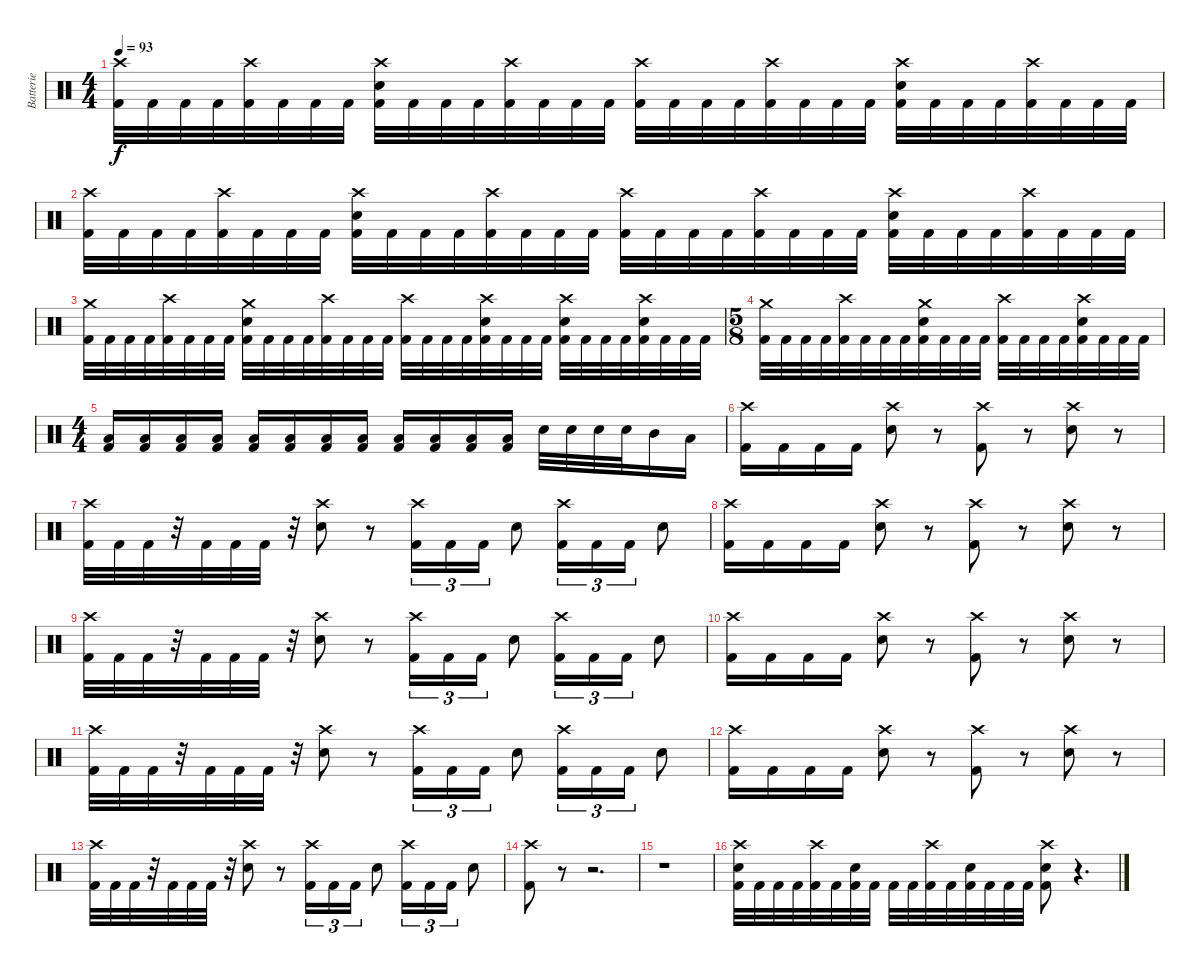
\track ("Batterie" "Batterie") {instrument percussion}
\staff {score}
\articulation defaults
\ts (4 4)
\tempo 93
\clef neutral
\ks c
("Crash high (hit)" "Kick (hit) 2").32{dy f} "Kick (hit) 2".32 "Kick (hit) 2".32 "Kick (hit) 2".32 ("Crash high (hit)" "Kick (hit) 2").32 "Kick (hit) 2".32 "Kick (hit) 2".32 "Kick (hit) 2".32 ("Crash high (hit)" "Electric Snare (hit)" "Kick (hit) 2").32 "Kick (hit) 2".32 "Kick (hit) 2".32 "Kick (hit) 2".32 ("Crash high (hit)" "Kick (hit) 2").32 "Kick (hit) 2".32 "Kick (hit) 2".32 "Kick (hit) 2".32 ("Crash high (hit)" "Kick (hit) 2").32 "Kick (hit) 2".32 "Kick (hit) 2".32 "Kick (hit) 2".32 ("Crash high (hit)" "Kick (hit) 2").32 "Kick (hit) 2".32 "Kick (hit) 2".32 "Kick (hit) 2".32 ("Crash high (hit)" "Electric Snare (hit)" "Kick (hit) 2").32 "Kick (hit) 2".32 "Kick (hit) 2".32 "Kick (hit) 2".32 ("Crash high (hit)" "Kick (hit) 2").32 "Kick (hit) 2".32 "Kick (hit) 2".32 "Kick (hit) 2".32 |
("Crash high (hit)" "Kick (hit) 2").32 "Kick (hit) 2".32 "Kick (hit) 2".32 "Kick (hit) 2".32 ("Crash high (hit)" "Kick (hit) 2").32 "Kick (hit) 2".32 "Kick (hit) 2".32 "Kick (hit) 2".32 ("Crash high (hit)" "Electric Snare (hit)" "Kick (hit) 2").32 "Kick (hit) 2".32 "Kick (hit) 2".32 "Kick (hit) 2".32 ("Crash high (hit)" "Kick (hit) 2").32 "Kick (hit) 2".32 "Kick (hit) 2".32 "Kick (hit) 2".32 ("Crash high (hit)" "Kick (hit) 2").32 "Kick (hit) 2".32 "Kick (hit) 2".32 "Kick (hit) 2".32 ("Crash high (hit)" "Kick (hit) 2").32 "Kick (hit) 2".32 "Kick (hit) 2".32 "Kick (hit) 2".32 ("Crash high (hit)" "Electric Snare (hit)" "Kick (hit) 2").32 "Kick (hit) 2".32 "Kick (hit) 2".32 "Kick (hit) 2".32 ("Crash high (hit)" "Kick (hit) 2").32 "Kick (hit) 2".32 "Kick (hit) 2".32 "Kick (hit) 2".32 |
("Crash medium (hit)" "Kick (hit) 2").32 "Kick (hit) 2".32 "Kick (hit) 2".32 "Kick (hit) 2".32 ("Crash high (hit)" "Kick (hit) 2").32 "Kick (hit) 2".32 "Kick (hit) 2".32 "Kick (hit) 2".32 ("Crash medium (hit)" "Electric Snare (hit)" "Kick (hit) 2").32 "Kick (hit) 2".32 "Kick (hit) 2".32 "Kick (hit) 2".32 ("Crash high (hit)" "Kick (hit) 2").32 "Kick (hit) 2".32 "Kick (hit) 2".32 "Kick (hit) 2".32 ("Crash high (hit)" "Kick (hit) 2").32 "Kick (hit) 2".32 "Kick (hit) 2".32 "Kick (hit) 2".32 ("Crash high (hit)" "Electric Snare (hit)" "Kick (hit) 2").32 "Kick (hit) 2".32 "Kick (hit) 2".32 "Kick (hit) 2".32 ("Crash high (hit)" "Electric Snare (hit)" "Kick (hit) 2").32 "Kick (hit) 2".32 "Kick (hit) 2".32 "Kick (hit) 2".32 ("Crash high (hit)" "Electric Snare (hit)" "Kick (hit) 2").32 "Kick (hit) 2".32 "Kick (hit) 2".32 "Kick (hit) 2".32 |
\ts (5 8)
("Crash medium (hit)" "Kick (hit) 2").32 "Kick (hit) 2".32 "Kick (hit) 2".32 "Kick (hit) 2".32 ("Crash high (hit)" "Kick (hit) 2").32 "Kick (hit) 2".32 "Kick (hit) 2".32 "Kick (hit) 2".32 ("Crash medium (hit)" "Electric Snare (hit)" "Kick (hit) 2").32 "Kick (hit) 2".32 "Kick (hit) 2".32 "Kick (hit) 2".32 ("Crash high (hit)" "Kick (hit) 2").32 "Kick (hit) 2".32 "Kick (hit) 2".32 "Kick (hit) 2".32 ("Crash high (hit)" "Electric Snare (hit)" "Kick (hit) 2").32 "Kick (hit) 2".32 "Kick (hit) 2".32 "Kick (hit) 2".32 |
\ts (4 4)
("Low Tom (hit)" "Kick (hit) 2").16 ("Low Tom (hit)" "Kick (hit) 2").16 ("Low Tom (hit)" "Kick (hit) 2").16 ("Low Tom (hit)" "Kick (hit) 2").16 ("Low Tom (hit)" "Kick (hit) 2").16 ("Low Tom (hit)" "Kick (hit) 2").16 ("Low Tom (hit)" "Kick (hit) 2").16 ("Low Tom (hit)" "Kick (hit) 2").16 ("Low Tom (hit)" "Kick (hit) 2").16 ("Low Tom (hit)" "Kick (hit) 2").16 ("Low Tom (hit)" "Kick (hit) 2").16 ("Low Tom (hit)" "Kick (hit) 2").16 "Electric Snare (hit)".32 "Electric Snare (hit)".32 "Electric Snare (hit)".32 "Electric Snare (hit)".32 "Mid Tom (hit)".16 "Low Tom (hit)".16 |
\section ("" "")
("Crash high (hit)" "Kick (hit) 2").16 "Kick (hit) 2".16 "Kick (hit) 2".16 "Kick (hit) 2".16 ("Crash high (hit)" "Electric Snare (hit)").8 r.8 ("Crash high (hit)" "Kick (hit) 2").8 r.8 ("Crash high (hit)" "Electric Snare (hit)").8 r.8 |
("Crash high (hit)" "Kick (hit) 2").32 "Kick (hit) 2".32 "Kick (hit) 2".32 r.32 "Kick (hit) 2".32 "Kick (hit) 2".32 "Kick (hit) 2".32 r.32 ("Crash high (hit)" "Electric Snare (hit)").8 r.8 ("Crash high (hit)" "Kick (hit) 2").16{tu (3 2)} "Kick (hit) 2".16{tu (3 2)} "Kick (hit) 2".16{tu (3 2)} "Electric Snare (hit)".8 ("Crash high (hit)" "Kick (hit) 2").16{tu (3 2)} "Kick (hit) 2".16{tu (3 2)} "Kick (hit) 2".16{tu (3 2)} "Electric Snare (hit)".8 |
("Crash high (hit)" "Kick (hit) 2").16 "Kick (hit) 2".16 "Kick (hit) 2".16 "Kick (hit) 2".16 ("Crash high (hit)" "Electric Snare (hit)").8 r.8 ("Crash high (hit)" "Kick (hit) 2").8 r.8 ("Crash high (hit)" "Electric Snare (hit)").8 r.8 |
("Crash high (hit)" "Kick (hit) 2").32 "Kick (hit) 2".32 "Kick (hit) 2".32 r.32 "Kick (hit) 2".32 "Kick (hit) 2".32 "Kick (hit) 2".32 r.32 ("Crash high (hit)" "Electric Snare (hit)").8 r.8 ("Crash high (hit)" "Kick (hit) 2").16{tu (3 2)} "Kick (hit) 2".16{tu (3 2)} "Kick (hit) 2".16{tu (3 2)} "Electric Snare (hit)".8 ("Crash high (hit)" "Kick (hit) 2").16{tu (3 2)} "Kick (hit) 2".16{tu (3 2)} "Kick (hit) 2".16{tu (3 2)} "Electric Snare (hit)".8 |
("Crash high (hit)" "Kick (hit) 2").16 "Kick (hit) 2".16 "Kick (hit) 2".16 "Kick (hit) 2".16 ("Crash high (hit)" "Electric Snare (hit)").8 r.8 ("Crash high (hit)" "Kick (hit) 2").8 r.8 ("Crash high (hit)" "Electric Snare (hit)").8 r.8 |
("Crash high (hit)" "Kick (hit) 2").32 "Kick (hit) 2".32 "Kick (hit) 2".32 r.32 "Kick (hit) 2".32 "Kick (hit) 2".32 "Kick (hit) 2".32 r.32 ("Crash high (hit)" "Electric Snare (hit)").8 r.8 ("Crash high (hit)" "Kick (hit) 2").16{tu (3 2)} "Kick (hit) 2".16{tu (3 2)} "Kick (hit) 2".16{tu (3 2)} "Electric Snare (hit)".8 ("Crash high (hit)" "Kick (hit) 2").16{tu (3 2)} "Kick (hit) 2".16{tu (3 2)} "Kick (hit) 2".16{tu (3 2)} "Electric Snare (hit)".8 |
("Crash high (hit)" "Kick (hit) 2").16 "Kick (hit) 2".16 "Kick (hit) 2".16 "Kick (hit) 2".16 ("Crash high (hit)" "Electric Snare (hit)").8 r.8 ("Crash high (hit)" "Kick (hit) 2").8 r.8 ("Crash high (hit)" "Electric Snare (hit)").8 r.8 |
("Crash high (hit)" "Kick (hit) 2").32 "Kick (hit) 2".32 "Kick (hit) 2".32 r.32 "Kick (hit) 2".32 "Kick (hit) 2".32 "Kick (hit) 2".32 r.32 ("Crash high (hit)" "Electric Snare (hit)").8 r.8 ("Crash high (hit)" "Kick (hit) 2").16{tu (3 2)} "Kick (hit) 2".16{tu (3 2)} "Kick (hit) 2".16{tu (3 2)} "Electric Snare (hit)".8 ("Crash high (hit)" "Kick (hit) 2").16{tu (3 2)} "Kick (hit) 2".16{tu (3 2)} "Kick (hit) 2".16{tu (3 2)} "Electric Snare (hit)".8 |
\section ("" "")
("Crash high (hit)" "Kick (hit) 2").8 r.8 r.2{d} |
r.1 |
("Crash high (hit)" "Electric Snare (hit)" "Kick (hit) 2").32 "Kick (hit) 2".32 "Kick (hit) 2".32 "Kick (hit) 2".32 ("Crash high (hit)" "Kick (hit) 2").32 "Kick (hit) 2".32 ("Electric Snare (hit)" "Kick (hit) 2").32 "Kick (hit) 2".32 "Kick (hit) 2".32 "Kick (hit) 2".32 ("Crash high (hit)" "Kick (hit) 2").32 "Kick (hit) 2".32 ("Electric Snare (hit)" "Kick (hit) 2").32 "Kick (hit) 2".32 "Kick (hit) 2".32 "Kick (hit) 2".32 ("Crash high (hit)" "Electric Snare (hit)" "Kick (hit) 2").8 r.4{d}
